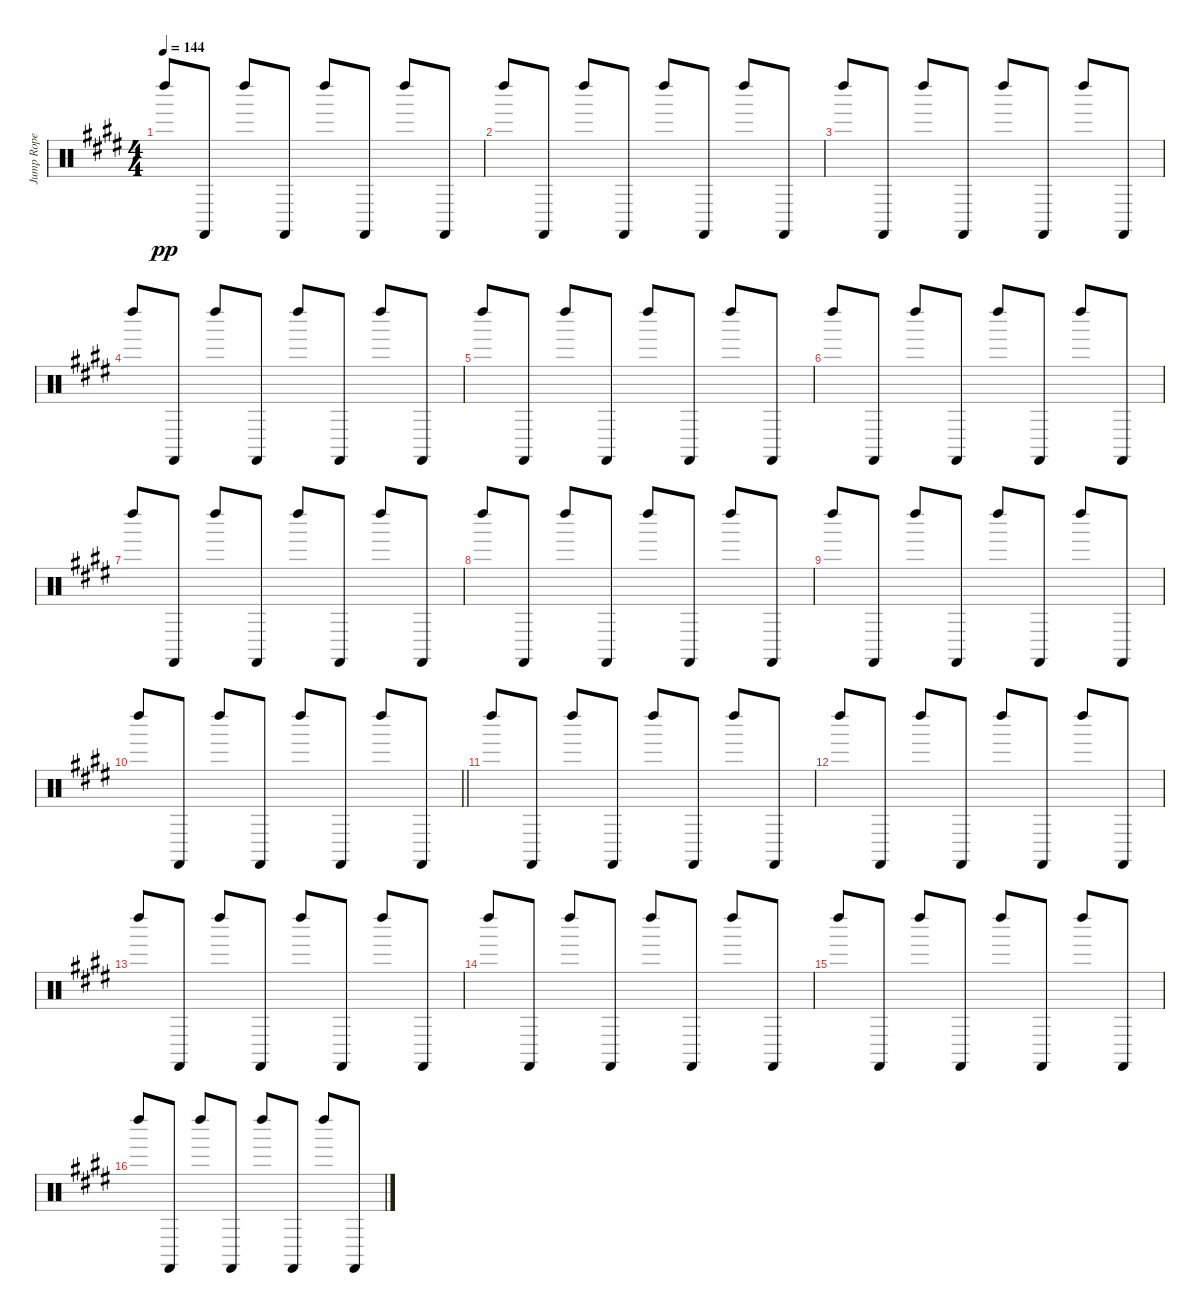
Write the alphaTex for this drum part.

\track ("Jump Rope" "Jump Rope") {instrument percussion}
\staff {score}
\articulation defaults
\ts (4 4)
\tempo 144
\clef neutral
\ks e "Left Maraca (hit)".8{dy pp} "Castanets (hit)".8 "Left Maraca (hit)".8 "Castanets (hit)".8 "Left Maraca (hit)".8 "Castanets (hit)".8 "Left Maraca (hit)".8 "Castanets (hit)".8
|
"Left Maraca (hit)".8 "Castanets (hit)".8 "Left Maraca (hit)".8 "Castanets (hit)".8 "Left Maraca (hit)".8 "Castanets (hit)".8 "Left Maraca (hit)".8 "Castanets (hit)".8 |
"Left Maraca (hit)".8 "Castanets (hit)".8 "Left Maraca (hit)".8 "Castanets (hit)".8 "Left Maraca (hit)".8 "Castanets (hit)".8 "Left Maraca (hit)".8 "Castanets (hit)".8 |
"Left Maraca (hit)".8 "Castanets (hit)".8 "Left Maraca (hit)".8 "Castanets (hit)".8 "Left Maraca (hit)".8 "Castanets (hit)".8 "Left Maraca (hit)".8 "Castanets (hit)".8 |
"Left Maraca (hit)".8 "Castanets (hit)".8 "Left Maraca (hit)".8 "Castanets (hit)".8 "Left Maraca (hit)".8 "Castanets (hit)".8 "Left Maraca (hit)".8 "Castanets (hit)".8 |
"Left Maraca (hit)".8 "Castanets (hit)".8 "Left Maraca (hit)".8 "Castanets (hit)".8 "Left Maraca (hit)".8 "Castanets (hit)".8 "Left Maraca (hit)".8 "Castanets (hit)".8 |
"Left Maraca (hit)".8 "Castanets (hit)".8 "Left Maraca (hit)".8 "Castanets (hit)".8 "Left Maraca (hit)".8 "Castanets (hit)".8 "Left Maraca (hit)".8 "Castanets (hit)".8 |
"Left Maraca (hit)".8 "Castanets (hit)".8 "Left Maraca (hit)".8 "Castanets (hit)".8 "Left Maraca (hit)".8 "Castanets (hit)".8 "Left Maraca (hit)".8 "Castanets (hit)".8 |
"Left Maraca (hit)".8 "Castanets (hit)".8 "Left Maraca (hit)".8 "Castanets (hit)".8 "Left Maraca (hit)".8 "Castanets (hit)".8 "Left Maraca (hit)".8 "Castanets (hit)".8 |
\barLineRight lightlight "Left Maraca (hit)".8 "Castanets (hit)".8 "Left Maraca (hit)".8 "Castanets (hit)".8 "Left Maraca (hit)".8 "Castanets (hit)".8 "Left Maraca (hit)".8 "Castanets (hit)".8
|
"Left Maraca (hit)".8 "Castanets (hit)".8 "Left Maraca (hit)".8 "Castanets (hit)".8 "Left Maraca (hit)".8 "Castanets (hit)".8 "Left Maraca (hit)".8 "Castanets (hit)".8 |
"Left Maraca (hit)".8 "Castanets (hit)".8 "Left Maraca (hit)".8 "Castanets (hit)".8 "Left Maraca (hit)".8 "Castanets (hit)".8 "Left Maraca (hit)".8 "Castanets (hit)".8 |
"Left Maraca (hit)".8 "Castanets (hit)".8 "Left Maraca (hit)".8 "Castanets (hit)".8 "Left Maraca (hit)".8 "Castanets (hit)".8 "Left Maraca (hit)".8 "Castanets (hit)".8 |
"Left Maraca (hit)".8 "Castanets (hit)".8 "Left Maraca (hit)".8 "Castanets (hit)".8 "Left Maraca (hit)".8 "Castanets (hit)".8 "Left Maraca (hit)".8 "Castanets (hit)".8 |
"Left Maraca (hit)".8 "Castanets (hit)".8 "Left Maraca (hit)".8 "Castanets (hit)".8 "Left Maraca (hit)".8 "Castanets (hit)".8 "Left Maraca (hit)".8 "Castanets (hit)".8 |
"Left Maraca (hit)".8 "Castanets (hit)".8 "Left Maraca (hit)".8 "Castanets (hit)".8 "Left Maraca (hit)".8 "Castanets (hit)".8 "Left Maraca (hit)".8 "Castanets (hit)".8
